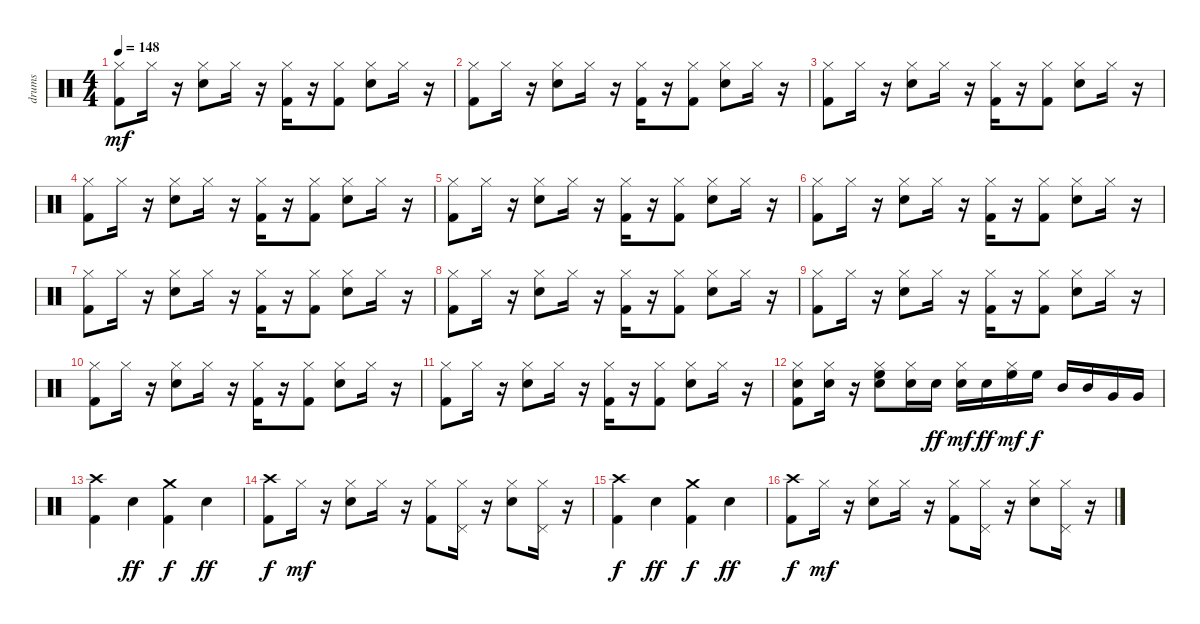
\track ("drums" "drums") {instrument percussion}
\staff {score}
\articulation defaults
\ts (4 4)
\tempo 148
\clef neutral
\ks c
("Hi-Hat (closed)" "Kick (hit) 2").8{dy mf} "Hi-Hat (closed)".16 r.16 ("Snare (hit) 2" "Hi-Hat (closed)").8 "Hi-Hat (closed)".16 r.16 ("Hi-Hat (closed)" "Kick (hit) 2").16 r.16 ("Hi-Hat (closed)" "Kick (hit) 2").8 ("Snare (hit) 2" "Hi-Hat (closed)").8 "Hi-Hat (closed)".16 r.16 |
("Hi-Hat (closed)" "Kick (hit) 2").8 "Hi-Hat (closed)".16 r.16 ("Snare (hit) 2" "Hi-Hat (closed)").8 "Hi-Hat (closed)".16 r.16 ("Hi-Hat (closed)" "Kick (hit) 2").16 r.16 ("Hi-Hat (closed)" "Kick (hit) 2").8 ("Snare (hit) 2" "Hi-Hat (closed)").8 "Hi-Hat (closed)".16 r.16 |
("Hi-Hat (closed)" "Kick (hit) 2").8 "Hi-Hat (closed)".16 r.16 ("Snare (hit) 2" "Hi-Hat (closed)").8 "Hi-Hat (closed)".16 r.16 ("Hi-Hat (closed)" "Kick (hit) 2").16 r.16 ("Hi-Hat (closed)" "Kick (hit) 2").8 ("Snare (hit) 2" "Hi-Hat (closed)").8 "Hi-Hat (closed)".16 r.16 |
("Hi-Hat (closed)" "Kick (hit) 2").8 "Hi-Hat (closed)".16 r.16 ("Snare (hit) 2" "Hi-Hat (closed)").8 "Hi-Hat (closed)".16 r.16 ("Hi-Hat (closed)" "Kick (hit) 2").16 r.16 ("Hi-Hat (closed)" "Kick (hit) 2").8 ("Snare (hit) 2" "Hi-Hat (closed)").8 "Hi-Hat (closed)".16 r.16 |
("Hi-Hat (closed)" "Kick (hit) 2").8 "Hi-Hat (closed)".16 r.16 ("Snare (hit) 2" "Hi-Hat (closed)").8 "Hi-Hat (closed)".16 r.16 ("Hi-Hat (closed)" "Kick (hit) 2").16 r.16 ("Hi-Hat (closed)" "Kick (hit) 2").8 ("Snare (hit) 2" "Hi-Hat (closed)").8 "Hi-Hat (closed)".16 r.16 |
("Hi-Hat (closed)" "Kick (hit) 2").8 "Hi-Hat (closed)".16 r.16 ("Snare (hit) 2" "Hi-Hat (closed)").8 "Hi-Hat (closed)".16 r.16 ("Hi-Hat (closed)" "Kick (hit) 2").16 r.16 ("Hi-Hat (closed)" "Kick (hit) 2").8 ("Snare (hit) 2" "Hi-Hat (closed)").8 "Hi-Hat (closed)".16 r.16 |
("Hi-Hat (closed)" "Kick (hit) 2").8 "Hi-Hat (closed)".16 r.16 ("Snare (hit) 2" "Hi-Hat (closed)").8 "Hi-Hat (closed)".16 r.16 ("Hi-Hat (closed)" "Kick (hit) 2").16 r.16 ("Hi-Hat (closed)" "Kick (hit) 2").8 ("Snare (hit) 2" "Hi-Hat (closed)").8 "Hi-Hat (closed)".16 r.16 |
("Hi-Hat (closed)" "Kick (hit) 2").8 "Hi-Hat (closed)".16 r.16 ("Snare (hit) 2" "Hi-Hat (closed)").8 "Hi-Hat (closed)".16 r.16 ("Hi-Hat (closed)" "Kick (hit) 2").16 r.16 ("Hi-Hat (closed)" "Kick (hit) 2").8 ("Snare (hit) 2" "Hi-Hat (closed)").8 "Hi-Hat (closed)".16 r.16 |
("Hi-Hat (closed)" "Kick (hit) 2").8 "Hi-Hat (closed)".16 r.16 ("Snare (hit) 2" "Hi-Hat (closed)").8 "Hi-Hat (closed)".16 r.16 ("Hi-Hat (closed)" "Kick (hit) 2").16 r.16 ("Hi-Hat (closed)" "Kick (hit) 2").8 ("Snare (hit) 2" "Hi-Hat (closed)").8 "Hi-Hat (closed)".16 r.16 |
("Hi-Hat (closed)" "Kick (hit) 2").8 "Hi-Hat (closed)".16 r.16 ("Snare (hit) 2" "Hi-Hat (closed)").8 "Hi-Hat (closed)".16 r.16 ("Hi-Hat (closed)" "Kick (hit) 2").16 r.16 ("Hi-Hat (closed)" "Kick (hit) 2").8 ("Snare (hit) 2" "Hi-Hat (closed)").8 "Hi-Hat (closed)".16 r.16 |
("Hi-Hat (closed)" "Kick (hit) 2").8 "Hi-Hat (closed)".16 r.16 ("Snare (hit) 2" "Hi-Hat (closed)").8 "Hi-Hat (closed)".16 r.16 ("Hi-Hat (closed)" "Kick (hit) 2").16 r.16 ("Hi-Hat (closed)" "Kick (hit) 2").8 ("Snare (hit) 2" "Hi-Hat (closed)").8 "Hi-Hat (closed)".16 r.16 |
("Snare (hit) 2" "Hi-Hat (closed)" "Kick (hit) 2").8 ("Snare (hit) 2" "Hi-Hat (closed)").16 r.16 ("High Floor Tom (hit)" "Snare (hit) 2" "Hi-Hat (closed)").8 ("Snare (hit) 2" "Hi-Hat (closed)").16 "Snare (hit) 2".16{dy ff} ("Snare (hit) 2" "Hi-Hat (closed)").16{dy mf} "Snare (hit) 2".16{dy ff} ("High Floor Tom (hit)" "Hi-Hat (closed)").16{dy mf} "High Floor Tom (hit)".16{dy f} "Mid Tom (hit)".16 "Mid Tom (hit)".16 "Very Low Tom (hit)".16 "Very Low Tom (hit)".16 |
("Crash high (hit)" "Kick (hit) 2").4 "Snare (hit) 2".4{dy ff} ("Crash medium (hit)" "Kick (hit) 2").4{dy f} "Snare (hit) 2".4{dy ff} |
("Crash high (hit)" "Kick (hit) 2").8{dy f} "Hi-Hat (closed)".16{dy mf} r.16 ("Snare (hit) 2" "Hi-Hat (closed)").8 "Hi-Hat (closed)".16 r.16 ("Hi-Hat (closed)" "Kick (hit) 2").8 ("Pedal Hi-Hat (hit)" "Hi-Hat (closed)").16 r.16 ("Snare (hit) 2" "Hi-Hat (closed)").8 ("Pedal Hi-Hat (hit)" "Hi-Hat (closed)").16 r.16 |
("Crash high (hit)" "Kick (hit) 2").4{dy f} "Snare (hit) 2".4{dy ff} ("Crash medium (hit)" "Kick (hit) 2").4{dy f} "Snare (hit) 2".4{dy ff} |
("Crash high (hit)" "Kick (hit) 2").8{dy f} "Hi-Hat (closed)".16{dy mf} r.16 ("Snare (hit) 2" "Hi-Hat (closed)").8 "Hi-Hat (closed)".16 r.16 ("Hi-Hat (closed)" "Kick (hit) 2").8 ("Pedal Hi-Hat (hit)" "Hi-Hat (closed)").16 r.16 ("Snare (hit) 2" "Hi-Hat (closed)").8 ("Pedal Hi-Hat (hit)" "Hi-Hat (closed)").16 r.16
